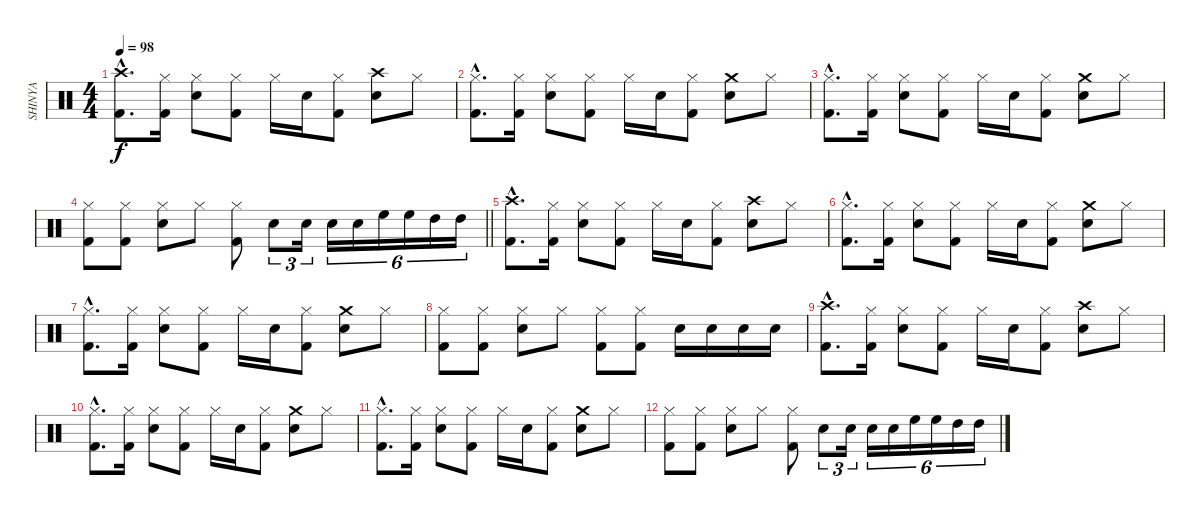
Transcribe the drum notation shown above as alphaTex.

\track ("SHINYA" "SHINYA") {instrument percussion}
\staff {score}
\articulation defaults
\ts (4 4)
\tempo 98
\clef neutral
\ks c
("Crash high (hit)"{hac} "Kick (hit) 2"{hac}).8{d dy f} ("Hi-Hat (closed)" "Kick (hit) 2").16 ("Hi-Hat (closed)" "Snare (hit) 2").8 ("Hi-Hat (closed)" "Kick (hit) 2").8 "Hi-Hat (closed)".16 "Snare (hit) 2".16 ("Hi-Hat (closed)" "Kick (hit) 2").8 ("Crash high (hit)" "Snare (hit) 2").8 "Hi-Hat (closed)".8 |
("Hi-Hat (closed)"{hac} "Kick (hit) 2"{hac}).8{d} ("Hi-Hat (closed)" "Kick (hit) 2").16 ("Hi-Hat (closed)" "Snare (hit) 2").8 ("Hi-Hat (closed)" "Kick (hit) 2").8 "Hi-Hat (closed)".16 "Snare (hit) 2".16 ("Hi-Hat (closed)" "Kick (hit) 2").8 ("Crash medium (hit)" "Snare (hit) 2").8 "Hi-Hat (closed)".8 |
("Hi-Hat (closed)"{hac} "Kick (hit) 2"{hac}).8{d} ("Hi-Hat (closed)" "Kick (hit) 2").16 ("Hi-Hat (closed)" "Snare (hit) 2").8 ("Hi-Hat (closed)" "Kick (hit) 2").8 "Hi-Hat (closed)".16 "Snare (hit) 2".16 ("Hi-Hat (closed)" "Kick (hit) 2").8 ("Crash medium (hit)" "Snare (hit) 2").8 "Hi-Hat (closed)".8 |
\barLineRight lightlight
("Hi-Hat (closed)" "Kick (hit) 2").8 ("Hi-Hat (closed)" "Kick (hit) 2").8 ("Hi-Hat (closed)" "Snare (hit) 2").8 "Hi-Hat (closed)".8 ("Hi-Hat (closed)" "Kick (hit) 2").8 "Snare (hit) 2".8{tu (3 2)} "Snare (hit) 2".16{tu (3 2)} "Snare (hit) 2".16{tu (6 4)} "Snare (hit) 2".16{tu (6 4)} "High Floor Tom (hit)".16{tu (6 4)} "High Floor Tom (hit)".16{tu (6 4)} "High Tom (hit)".16{tu (6 4)} "High Tom (hit)".16{tu (6 4)} |
("Crash high (hit)"{hac} "Kick (hit) 2"{hac}).8{d} ("Hi-Hat (closed)" "Kick (hit) 2").16 ("Hi-Hat (closed)" "Snare (hit) 2").8 ("Hi-Hat (closed)" "Kick (hit) 2").8 "Hi-Hat (closed)".16 "Snare (hit) 2".16 ("Hi-Hat (closed)" "Kick (hit) 2").8 ("Crash high (hit)" "Snare (hit) 2").8 "Hi-Hat (closed)".8 |
("Hi-Hat (closed)"{hac} "Kick (hit) 2"{hac}).8{d} ("Hi-Hat (closed)" "Kick (hit) 2").16 ("Hi-Hat (closed)" "Snare (hit) 2").8 ("Hi-Hat (closed)" "Kick (hit) 2").8 "Hi-Hat (closed)".16 "Snare (hit) 2".16 ("Hi-Hat (closed)" "Kick (hit) 2").8 ("Crash medium (hit)" "Snare (hit) 2").8 "Hi-Hat (closed)".8 |
("Hi-Hat (closed)"{hac} "Kick (hit) 2"{hac}).8{d} ("Hi-Hat (closed)" "Kick (hit) 2").16 ("Hi-Hat (closed)" "Snare (hit) 2").8 ("Hi-Hat (closed)" "Kick (hit) 2").8 "Hi-Hat (closed)".16 "Snare (hit) 2".16 ("Hi-Hat (closed)" "Kick (hit) 2").8 ("Crash medium (hit)" "Snare (hit) 2").8 "Hi-Hat (closed)".8 |
("Hi-Hat (closed)" "Kick (hit) 2").8 ("Hi-Hat (closed)" "Kick (hit) 2").8 ("Hi-Hat (closed)" "Snare (hit) 2").8 "Hi-Hat (closed)".8 ("Hi-Hat (closed)" "Kick (hit) 2").8 ("Hi-Hat (closed)" "Kick (hit) 2").8 "Snare (hit) 2".16 "Snare (hit) 2".16 "Snare (hit) 2".16 "Snare (hit) 2".16 |
("Crash high (hit)"{hac} "Kick (hit) 2"{hac}).8{d} ("Hi-Hat (closed)" "Kick (hit) 2").16 ("Hi-Hat (closed)" "Snare (hit) 2").8 ("Hi-Hat (closed)" "Kick (hit) 2").8 "Hi-Hat (closed)".16 "Snare (hit) 2".16 ("Hi-Hat (closed)" "Kick (hit) 2").8 ("Crash high (hit)" "Snare (hit) 2").8 "Hi-Hat (closed)".8 |
("Hi-Hat (closed)"{hac} "Kick (hit) 2"{hac}).8{d} ("Hi-Hat (closed)" "Kick (hit) 2").16 ("Hi-Hat (closed)" "Snare (hit) 2").8 ("Hi-Hat (closed)" "Kick (hit) 2").8 "Hi-Hat (closed)".16 "Snare (hit) 2".16 ("Hi-Hat (closed)" "Kick (hit) 2").8 ("Crash medium (hit)" "Snare (hit) 2").8 "Hi-Hat (closed)".8 |
("Hi-Hat (closed)"{hac} "Kick (hit) 2"{hac}).8{d} ("Hi-Hat (closed)" "Kick (hit) 2").16 ("Hi-Hat (closed)" "Snare (hit) 2").8 ("Hi-Hat (closed)" "Kick (hit) 2").8 "Hi-Hat (closed)".16 "Snare (hit) 2".16 ("Hi-Hat (closed)" "Kick (hit) 2").8 ("Crash medium (hit)" "Snare (hit) 2").8 "Hi-Hat (closed)".8 |
("Hi-Hat (closed)" "Kick (hit) 2").8 ("Hi-Hat (closed)" "Kick (hit) 2").8 ("Hi-Hat (closed)" "Snare (hit) 2").8 "Hi-Hat (closed)".8 ("Hi-Hat (closed)" "Kick (hit) 2").8 "Snare (hit) 2".8{tu (3 2)} "Snare (hit) 2".16{tu (3 2)} "Snare (hit) 2".16{tu (6 4)} "Snare (hit) 2".16{tu (6 4)} "High Floor Tom (hit)".16{tu (6 4)} "High Floor Tom (hit)".16{tu (6 4)} "High Tom (hit)".16{tu (6 4)} "High Tom (hit)".16{tu (6 4)}
